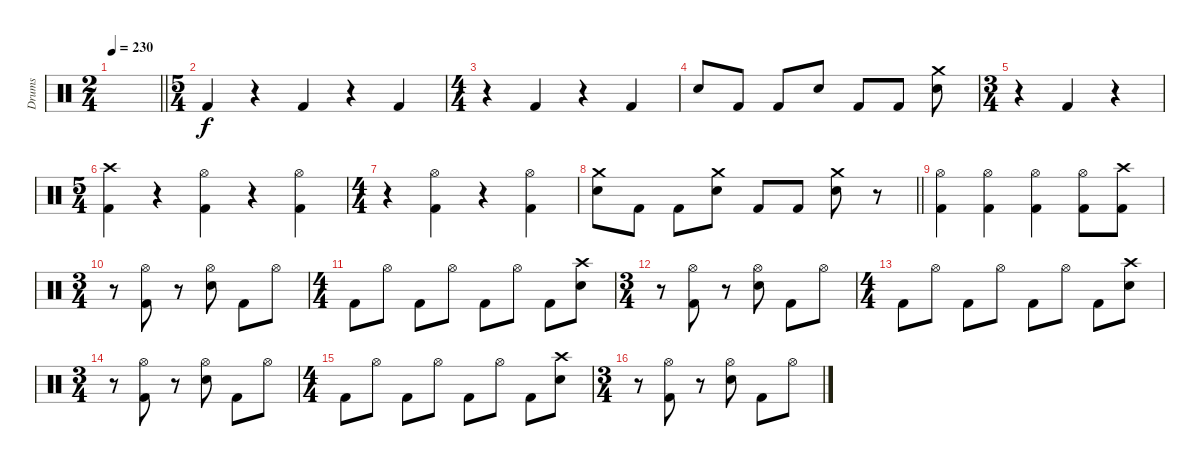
\track ("Drums" "Drums") {instrument percussion}
\staff {score}
\articulation defaults
\ts (2 4)
\tempo 230
\clef neutral
\barLineRight lightlight
\ks c
|
\ts (5 4)
\section ("" "")
"Kick (hit) 2".4{dy f} r.4 "Kick (hit) 2".4 r.4 "Kick (hit) 2".4 |
\ts (4 4)
r.4 "Kick (hit) 2".4 r.4 "Kick (hit) 2".4 |
"Electric Snare (hit)".8 "Kick (hit) 2".8 "Kick (hit) 2".8 "Electric Snare (hit)".8 "Kick (hit) 2".8 "Kick (hit) 2".8 ("Crash medium (hit)" "Electric Snare (hit)").8 |
\ts (3 4)
r.4 "Kick (hit) 2".4 r.4 |
\ts (5 4)
("Crash high (hit)" "Kick (hit) 2").4 r.4 ("Hi-Hat (open)" "Kick (hit) 2").4 r.4 ("Hi-Hat (open)" "Kick (hit) 2").4 |
\ts (4 4)
r.4 ("Hi-Hat (open)" "Kick (hit) 2").4 r.4 ("Hi-Hat (open)" "Kick (hit) 2").4 |
\barLineRight lightlight
("Crash medium (hit)" "Electric Snare (hit)").8 "Kick (hit) 2".8 "Kick (hit) 2".8 ("Crash medium (hit)" "Electric Snare (hit)").8 "Kick (hit) 2".8 "Kick (hit) 2".8 ("Crash medium (hit)" "Electric Snare (hit)").8 r.8 |
\section ("" "")
("Hi-Hat (open)" "Kick (hit) 2").4 ("Hi-Hat (open)" "Kick (hit) 2").4 ("Hi-Hat (open)" "Kick (hit) 2").4 ("Hi-Hat (open)" "Kick (hit) 2").8 ("Crash high (hit)" "Kick (hit) 2").8 |
\ts (3 4)
r.8 ("Hi-Hat (open)" "Kick (hit) 2").8 r.8 ("Hi-Hat (open)" "Electric Snare (hit)").8 "Kick (hit) 2".8 "Hi-Hat (open)".8 |
\ts (4 4)
"Kick (hit) 2".8 "Hi-Hat (open)".8 "Kick (hit) 2".8 "Hi-Hat (open)".8 "Kick (hit) 2".8 "Hi-Hat (open)".8 "Kick (hit) 2".8 ("Crash high (hit)" "Electric Snare (hit)").8 |
\ts (3 4)
r.8 ("Hi-Hat (open)" "Kick (hit) 2").8 r.8 ("Hi-Hat (open)" "Electric Snare (hit)").8 "Kick (hit) 2".8 "Hi-Hat (open)".8 |
\ts (4 4)
"Kick (hit) 2".8 "Hi-Hat (open)".8 "Kick (hit) 2".8 "Hi-Hat (open)".8 "Kick (hit) 2".8 "Hi-Hat (open)".8 "Kick (hit) 2".8 ("Crash high (hit)" "Electric Snare (hit)").8 |
\ts (3 4)
r.8 ("Hi-Hat (open)" "Kick (hit) 2").8 r.8 ("Hi-Hat (open)" "Electric Snare (hit)").8 "Kick (hit) 2".8 "Hi-Hat (open)".8 |
\ts (4 4)
"Kick (hit) 2".8 "Hi-Hat (open)".8 "Kick (hit) 2".8 "Hi-Hat (open)".8 "Kick (hit) 2".8 "Hi-Hat (open)".8 "Kick (hit) 2".8 ("Crash high (hit)" "Electric Snare (hit)").8 |
\ts (3 4)
r.8 ("Hi-Hat (open)" "Kick (hit) 2").8 r.8 ("Hi-Hat (open)" "Electric Snare (hit)").8 "Kick (hit) 2".8 "Hi-Hat (open)".8
